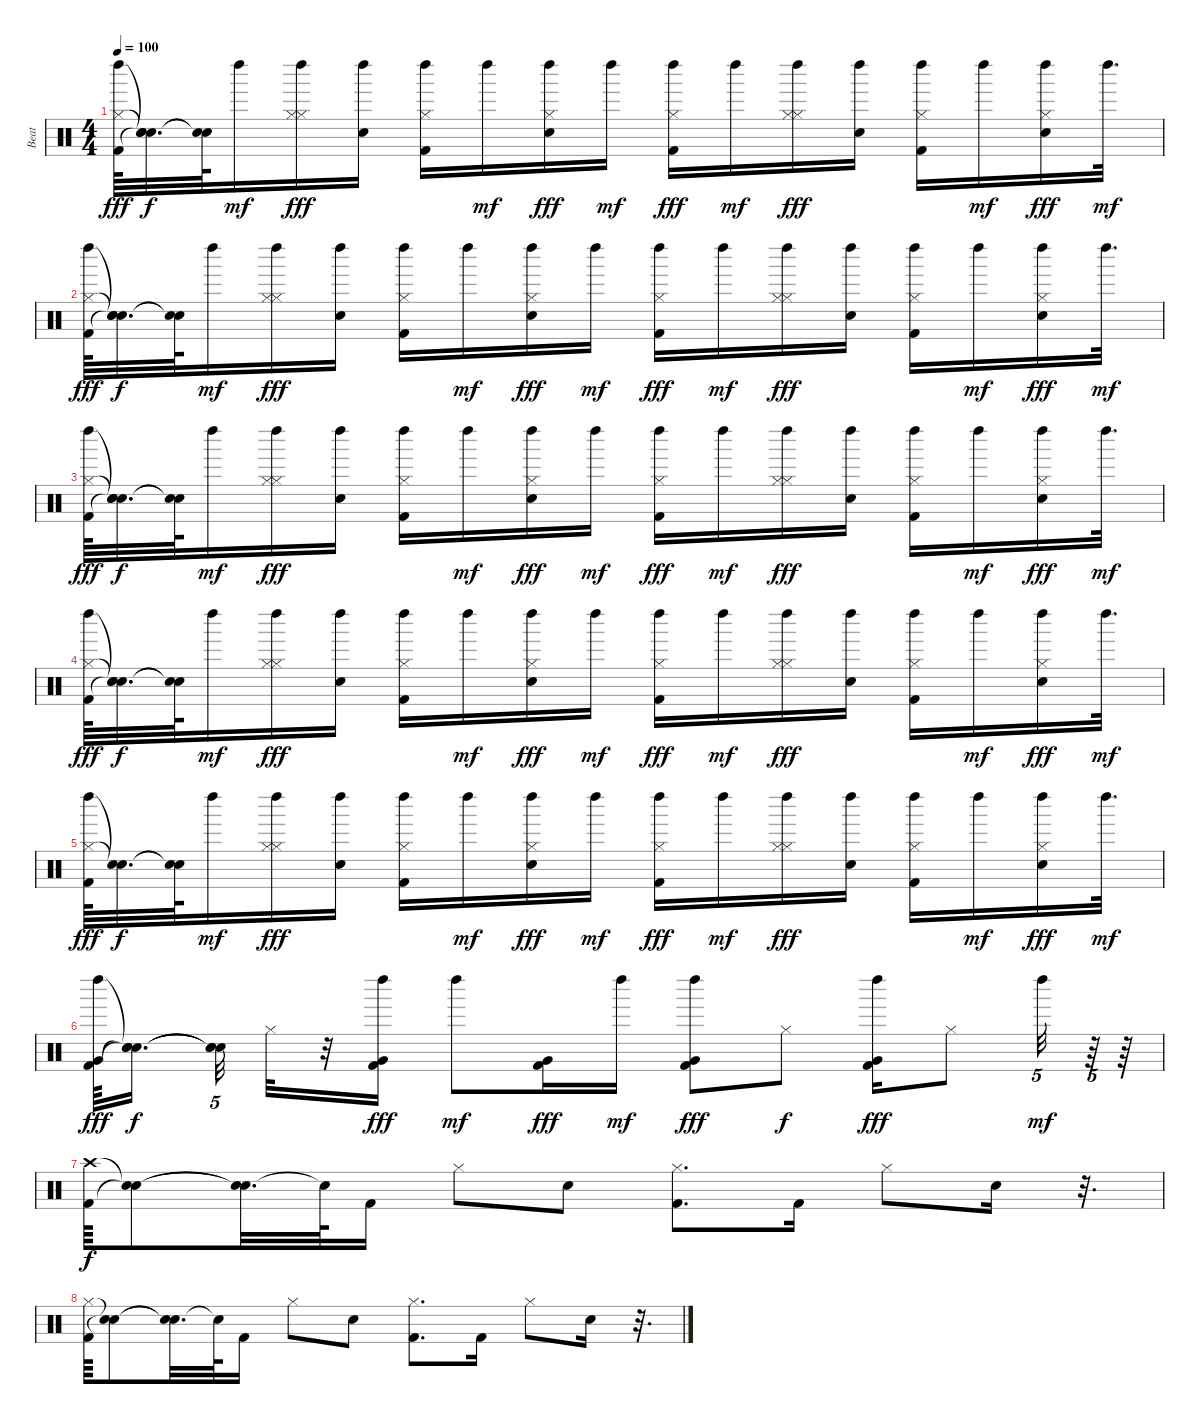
\track ("Beat" "Beat") {instrument percussion}
\staff {score}
\articulation defaults
\ts (4 4)
\tempo 100
\clef neutral
\ks c
("Left Maraca (hit)" "Hi-Hat (closed)" "Kick (hit) 2").64{dy fff} ("Snare (hit)"{t} "Snare (hit)"{t} "Snare (hit)"{t}).32{d dy f} ("Snare (hit)"{t} "Snare (hit)"{t}).64 "Left Maraca (hit)".16{dy mf} ("Hi-Hat (closed)" "Left Maraca (hit)" "Hi-Hat (closed)").16{dy fff} ("Left Maraca (hit)" "Electric Snare (hit)").16 ("Left Maraca (hit)" "Kick (hit) 2" "Hi-Hat (closed)").16 "Left Maraca (hit)".16{dy mf} ("Left Maraca (hit)" "Hi-Hat (closed)" "Electric Snare (hit)").16{dy fff} "Left Maraca (hit)".16{dy mf} ("Left Maraca (hit)" "Hi-Hat (closed)" "Kick (hit) 2").16{dy fff} "Left Maraca (hit)".16{dy mf} ("Hi-Hat (closed)" "Left Maraca (hit)" "Hi-Hat (closed)").16{dy fff} ("Left Maraca (hit)" "Electric Snare (hit)").16 ("Left Maraca (hit)" "Kick (hit) 2" "Hi-Hat (closed)").16 "Left Maraca (hit)".16{dy mf} ("Left Maraca (hit)" "Hi-Hat (closed)" "Electric Snare (hit)").16{dy fff} "Left Maraca (hit)".32{d dy mf} |
("Left Maraca (hit)" "Hi-Hat (closed)" "Kick (hit) 2").64{dy fff} ("Snare (hit)"{t} "Snare (hit)"{t} "Snare (hit)"{t}).32{d dy f} ("Snare (hit)"{t} "Snare (hit)"{t}).64 "Left Maraca (hit)".16{dy mf} ("Hi-Hat (closed)" "Left Maraca (hit)" "Hi-Hat (closed)").16{dy fff} ("Left Maraca (hit)" "Electric Snare (hit)").16 ("Left Maraca (hit)" "Kick (hit) 2" "Hi-Hat (closed)").16 "Left Maraca (hit)".16{dy mf} ("Left Maraca (hit)" "Hi-Hat (closed)" "Electric Snare (hit)").16{dy fff} "Left Maraca (hit)".16{dy mf} ("Left Maraca (hit)" "Hi-Hat (closed)" "Kick (hit) 2").16{dy fff} "Left Maraca (hit)".16{dy mf} ("Hi-Hat (closed)" "Left Maraca (hit)" "Hi-Hat (closed)").16{dy fff} ("Left Maraca (hit)" "Electric Snare (hit)").16 ("Left Maraca (hit)" "Kick (hit) 2" "Hi-Hat (closed)").16 "Left Maraca (hit)".16{dy mf} ("Left Maraca (hit)" "Hi-Hat (closed)" "Electric Snare (hit)").16{dy fff} "Left Maraca (hit)".32{d dy mf} |
("Left Maraca (hit)" "Hi-Hat (closed)" "Kick (hit) 2").64{dy fff} ("Snare (hit)"{t} "Snare (hit)"{t} "Snare (hit)"{t}).32{d dy f} ("Snare (hit)"{t} "Snare (hit)"{t}).64 "Left Maraca (hit)".16{dy mf} ("Hi-Hat (closed)" "Left Maraca (hit)" "Hi-Hat (closed)").16{dy fff} ("Left Maraca (hit)" "Electric Snare (hit)").16 ("Left Maraca (hit)" "Kick (hit) 2" "Hi-Hat (closed)").16 "Left Maraca (hit)".16{dy mf} ("Left Maraca (hit)" "Hi-Hat (closed)" "Electric Snare (hit)").16{dy fff} "Left Maraca (hit)".16{dy mf} ("Left Maraca (hit)" "Hi-Hat (closed)" "Kick (hit) 2").16{dy fff} "Left Maraca (hit)".16{dy mf} ("Left Maraca (hit)" "Hi-Hat (closed)" "Hi-Hat (closed)").16{dy fff} ("Left Maraca (hit)" "Electric Snare (hit)").16 ("Left Maraca (hit)" "Kick (hit) 2" "Hi-Hat (closed)").16 "Left Maraca (hit)".16{dy mf} ("Left Maraca (hit)" "Hi-Hat (closed)" "Electric Snare (hit)").16{dy fff} "Left Maraca (hit)".32{d dy mf} |
("Left Maraca (hit)" "Hi-Hat (closed)" "Kick (hit) 2").64{dy fff} ("Snare (hit)"{t} "Snare (hit)"{t} "Snare (hit)"{t}).32{d dy f} ("Snare (hit)"{t} "Snare (hit)"{t}).64 "Left Maraca (hit)".16{dy mf} ("Hi-Hat (closed)" "Left Maraca (hit)" "Hi-Hat (closed)").16{dy fff} ("Left Maraca (hit)" "Electric Snare (hit)").16 ("Left Maraca (hit)" "Kick (hit) 2" "Hi-Hat (closed)").16 "Left Maraca (hit)".16{dy mf} ("Left Maraca (hit)" "Hi-Hat (closed)" "Electric Snare (hit)").16{dy fff} "Left Maraca (hit)".16{dy mf} ("Left Maraca (hit)" "Hi-Hat (closed)" "Kick (hit) 2").16{dy fff} "Left Maraca (hit)".16{dy mf} ("Hi-Hat (closed)" "Left Maraca (hit)" "Hi-Hat (closed)").16{dy fff} ("Left Maraca (hit)" "Electric Snare (hit)").16 ("Left Maraca (hit)" "Kick (hit) 2" "Hi-Hat (closed)").16 "Left Maraca (hit)".16{dy mf} ("Left Maraca (hit)" "Hi-Hat (closed)" "Electric Snare (hit)").16{dy fff} "Left Maraca (hit)".32{d dy mf} |
("Left Maraca (hit)" "Hi-Hat (closed)" "Kick (hit) 2").64{dy fff} ("Snare (hit)"{t} "Snare (hit)"{t}).32{d dy f} ("Snare (hit)"{t} "Snare (hit)"{t}).64 "Left Maraca (hit)".16{dy mf} ("Hi-Hat (closed)" "Left Maraca (hit)" "Hi-Hat (closed)").16{dy fff} ("Left Maraca (hit)" "Electric Snare (hit)").16 ("Left Maraca (hit)" "Kick (hit) 2" "Hi-Hat (closed)").16 "Left Maraca (hit)".16{dy mf} ("Left Maraca (hit)" "Hi-Hat (closed)" "Electric Snare (hit)").16{dy fff} "Left Maraca (hit)".16{dy mf} ("Left Maraca (hit)" "Hi-Hat (closed)" "Kick (hit) 2").16{dy fff} "Left Maraca (hit)".16{dy mf} ("Hi-Hat (closed)" "Left Maraca (hit)" "Hi-Hat (closed)").16{dy fff} ("Left Maraca (hit)" "Electric Snare (hit)").16 ("Left Maraca (hit)" "Kick (hit) 2" "Hi-Hat (closed)").16 "Left Maraca (hit)".16{dy mf} ("Left Maraca (hit)" "Hi-Hat (closed)" "Electric Snare (hit)").16{dy fff} "Left Maraca (hit)".32{d dy mf} |
("Left Maraca (hit)" "Kick (hit) 2" "Very Low Tom (hit)").64{dy fff} ("Snare (hit)"{t} "Snare (hit)"{t} "Snare (hit)"{t}).16{d dy f beam splitsecondary} ("Snare (hit)"{t} "Snare (hit)"{t} "Snare (hit)"{t}).32{tu (5 4)} "Hi-Hat (closed)".32 r.32 ("Left Maraca (hit)" "Kick (hit) 2" "Very Low Tom (hit)").16{dy fff} "Left Maraca (hit)".8{dy mf} ("Very Low Tom (hit)" "Kick (hit) 2").16{dy fff} "Left Maraca (hit)".16{dy mf} ("Very Low Tom (hit)" "Left Maraca (hit)" "Kick (hit) 2").8{dy fff} "Hi-Hat (closed)".8{dy f} ("Very Low Tom (hit)" "Left Maraca (hit)" "Kick (hit) 2").16{dy fff} "Hi-Hat (closed)".8 "Left Maraca (hit)".32{tu (5 4) dy mf} r.64{tu (5 4)} r.64 |
("Crash high (hit)" "Kick (hit) 2").64{dy f} ("Snare (hit)"{t} "Snare (hit)"{t}).8 ("Snare (hit)"{t} "Snare (hit)"{t}).32{d} "Snare (hit)"{t}.64 "Kick (hit) 2".16 "Hi-Hat (closed)".8 "Electric Snare (hit)".8 ("Hi-Hat (closed)" "Kick (hit) 2").8{d} "Kick (hit) 2".16 "Hi-Hat (closed)".8 "Electric Snare (hit)".16 r.32{d} |
("Hi-Hat (closed)" "Kick (hit) 2").64 ("Snare (hit)"{t} "Snare (hit)"{t}).8 ("Snare (hit)"{t} "Snare (hit)"{t}).32{d} "Snare (hit)"{t}.64 "Kick (hit) 2".16 "Hi-Hat (closed)".8 "Electric Snare (hit)".8 ("Hi-Hat (closed)" "Kick (hit) 2").8{d} "Kick (hit) 2".16 "Hi-Hat (closed)".8 "Electric Snare (hit)".16 r.32{d}
